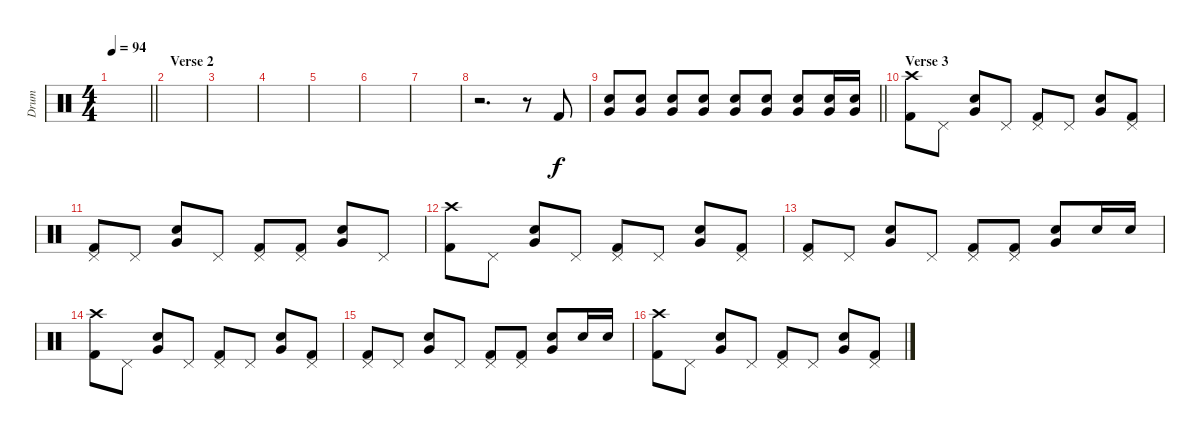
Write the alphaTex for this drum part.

\track ("Drum" "Drum") {instrument percussion}
\staff {score}
\articulation defaults
\ts (4 4)
\tempo 94
\clef neutral
\barLineRight lightlight
\ks c
|
\section ("" "Verse 2")
|
|
|
|
|
|
r.2{d} r.8 "Kick (hit) 2".8 |
\barLineRight lightlight
("Very Low Tom (hit)" "Electric Snare (hit)").8 ("Very Low Tom (hit)" "Electric Snare (hit)").8 ("Very Low Tom (hit)" "Electric Snare (hit)").8 ("Very Low Tom (hit)" "Electric Snare (hit)").8 ("Very Low Tom (hit)" "Electric Snare (hit)").8 ("Very Low Tom (hit)" "Electric Snare (hit)").8 ("Very Low Tom (hit)" "Electric Snare (hit)").8 ("Very Low Tom (hit)" "Electric Snare (hit)").16 ("Very Low Tom (hit)" "Electric Snare (hit)").16 |
\section ("" "Verse 3")
("Crash high (hit)" "Kick (hit) 2").8 "Pedal Hi-Hat (hit)".8 ("Very Low Tom (hit)" "Electric Snare (hit)").8 "Pedal Hi-Hat (hit)".8 ("Pedal Hi-Hat (hit)" "Kick (hit) 2").8 "Pedal Hi-Hat (hit)".8 ("Very Low Tom (hit)" "Electric Snare (hit)").8 ("Pedal Hi-Hat (hit)" "Kick (hit) 2").8 |
("Pedal Hi-Hat (hit)" "Kick (hit) 2").8 "Pedal Hi-Hat (hit)".8 ("Very Low Tom (hit)" "Electric Snare (hit)").8 "Pedal Hi-Hat (hit)".8 ("Pedal Hi-Hat (hit)" "Kick (hit) 2").8 ("Pedal Hi-Hat (hit)" "Kick (hit) 2").8 ("Very Low Tom (hit)" "Electric Snare (hit)").8 "Pedal Hi-Hat (hit)".8 |
("Crash high (hit)" "Kick (hit) 2").8 "Pedal Hi-Hat (hit)".8 ("Very Low Tom (hit)" "Electric Snare (hit)").8 "Pedal Hi-Hat (hit)".8 ("Pedal Hi-Hat (hit)" "Kick (hit) 2").8 "Pedal Hi-Hat (hit)".8 ("Very Low Tom (hit)" "Electric Snare (hit)").8 ("Pedal Hi-Hat (hit)" "Kick (hit) 2").8 |
("Pedal Hi-Hat (hit)" "Kick (hit) 2").8 "Pedal Hi-Hat (hit)".8 ("Very Low Tom (hit)" "Electric Snare (hit)").8 "Pedal Hi-Hat (hit)".8 ("Pedal Hi-Hat (hit)" "Kick (hit) 2").8 ("Pedal Hi-Hat (hit)" "Kick (hit) 2").8 ("Very Low Tom (hit)" "Electric Snare (hit)").8 "Electric Snare (hit)".16 "Electric Snare (hit)".16 |
("Crash high (hit)" "Kick (hit) 2").8 "Pedal Hi-Hat (hit)".8 ("Very Low Tom (hit)" "Electric Snare (hit)").8 "Pedal Hi-Hat (hit)".8 ("Pedal Hi-Hat (hit)" "Kick (hit) 2").8 "Pedal Hi-Hat (hit)".8 ("Very Low Tom (hit)" "Electric Snare (hit)").8 ("Pedal Hi-Hat (hit)" "Kick (hit) 2").8 |
("Pedal Hi-Hat (hit)" "Kick (hit) 2").8 "Pedal Hi-Hat (hit)".8 ("Very Low Tom (hit)" "Electric Snare (hit)").8 "Pedal Hi-Hat (hit)".8 ("Pedal Hi-Hat (hit)" "Kick (hit) 2").8 ("Pedal Hi-Hat (hit)" "Kick (hit) 2").8 ("Very Low Tom (hit)" "Electric Snare (hit)").8 "Electric Snare (hit)".16 "Electric Snare (hit)".16 |
("Crash high (hit)" "Kick (hit) 2").8 "Pedal Hi-Hat (hit)".8 ("Very Low Tom (hit)" "Electric Snare (hit)").8 "Pedal Hi-Hat (hit)".8 ("Pedal Hi-Hat (hit)" "Kick (hit) 2").8 "Pedal Hi-Hat (hit)".8 ("Very Low Tom (hit)" "Electric Snare (hit)").8 ("Pedal Hi-Hat (hit)" "Kick (hit) 2").8
